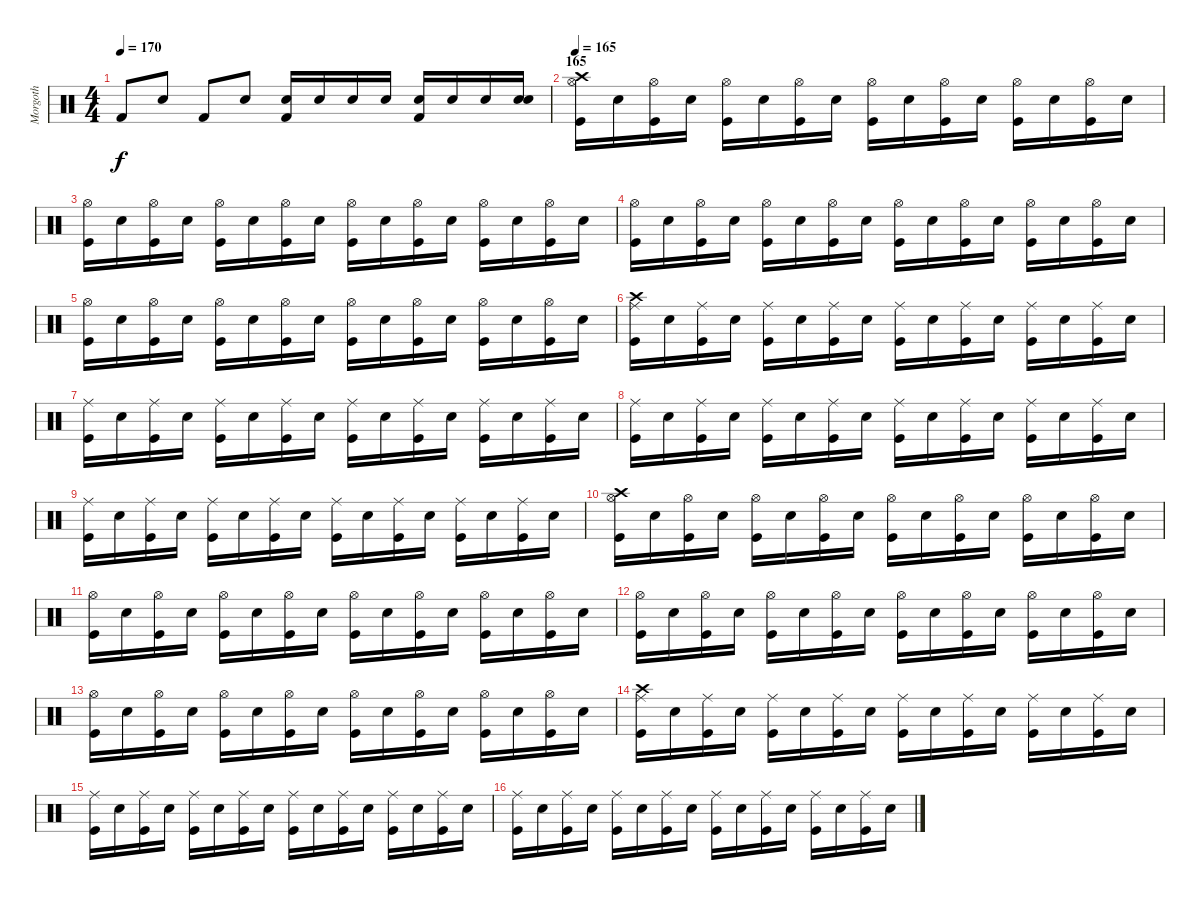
\track ("Morgoth" "Morgoth") {instrument percussion}
\staff {score}
\articulation defaults
\ts (4 4)
\tempo 170
\clef neutral
\ks c "Kick (hit) 2".8{dy f} "Electric Snare (hit)".8 "Kick (hit) 2".8 "Electric Snare (hit)".8
("Electric Snare (hit)" "Kick (hit) 2").16 "Electric Snare (hit)".16 "Electric Snare (hit)".16 "Electric Snare (hit)".16 ("Electric Snare (hit)" "Kick (hit) 2").16 "Electric Snare (hit)".16 "Electric Snare (hit)".16 ("Electric Snare (hit)" "Electric Snare (hit)").16 |
\section ("" "165")
\tempo 165
("Kick (hit)" "Crash high (hit)" "Hi-Hat (open)").16 "Snare (hit) 2".16 ("Kick (hit)" "Hi-Hat (open)").16 "Snare (hit) 2".16 ("Kick (hit)" "Hi-Hat (open)").16 "Snare (hit) 2".16 ("Kick (hit)" "Hi-Hat (open)").16 "Snare (hit) 2".16 ("Kick (hit)" "Hi-Hat (open)").16 "Snare (hit) 2".16 ("Kick (hit)" "Hi-Hat (open)").16 "Snare (hit) 2".16 ("Kick (hit)" "Hi-Hat (open)").16 "Snare (hit) 2".16 ("Kick (hit)" "Hi-Hat (open)").16 "Snare (hit) 2".16 |
("Kick (hit)" "Hi-Hat (open)").16 "Snare (hit) 2".16 ("Kick (hit)" "Hi-Hat (open)").16 "Snare (hit) 2".16 ("Kick (hit)" "Hi-Hat (open)").16 "Snare (hit) 2".16 ("Kick (hit)" "Hi-Hat (open)").16 "Snare (hit) 2".16 ("Kick (hit)" "Hi-Hat (open)").16 "Snare (hit) 2".16 ("Kick (hit)" "Hi-Hat (open)").16 "Snare (hit) 2".16 ("Kick (hit)" "Hi-Hat (open)").16 "Snare (hit) 2".16 ("Kick (hit)" "Hi-Hat (open)").16 "Snare (hit) 2".16 |
("Kick (hit)" "Hi-Hat (open)").16 "Snare (hit) 2".16 ("Kick (hit)" "Hi-Hat (open)").16 "Snare (hit) 2".16 ("Kick (hit)" "Hi-Hat (open)").16 "Snare (hit) 2".16 ("Kick (hit)" "Hi-Hat (open)").16 "Snare (hit) 2".16 ("Kick (hit)" "Hi-Hat (open)").16 "Snare (hit) 2".16 ("Kick (hit)" "Hi-Hat (open)").16 "Snare (hit) 2".16 ("Kick (hit)" "Hi-Hat (open)").16 "Snare (hit) 2".16 ("Kick (hit)" "Hi-Hat (open)").16 "Snare (hit) 2".16 |
("Kick (hit)" "Hi-Hat (open)").16 "Snare (hit) 2".16 ("Kick (hit)" "Hi-Hat (open)").16 "Snare (hit) 2".16 ("Kick (hit)" "Hi-Hat (open)").16 "Snare (hit) 2".16 ("Kick (hit)" "Hi-Hat (open)").16 "Snare (hit) 2".16 ("Kick (hit)" "Hi-Hat (open)").16 "Snare (hit) 2".16 ("Kick (hit)" "Hi-Hat (open)").16 "Snare (hit) 2".16 ("Kick (hit)" "Hi-Hat (open)").16 "Snare (hit) 2".16 ("Kick (hit)" "Hi-Hat (open)").16 "Snare (hit) 2".16 |
("Kick (hit)" "Crash high (hit)" "Ride (middle)").16 "Snare (hit) 2".16 ("Kick (hit)" "Ride (middle)").16 "Snare (hit) 2".16 ("Kick (hit)" "Ride (middle)").16 "Snare (hit) 2".16 ("Kick (hit)" "Ride (middle)").16 "Snare (hit) 2".16 ("Kick (hit)" "Ride (middle)").16 "Snare (hit) 2".16 ("Kick (hit)" "Ride (middle)").16 "Snare (hit) 2".16 ("Kick (hit)" "Ride (middle)").16 "Snare (hit) 2".16 ("Kick (hit)" "Ride (middle)").16 "Snare (hit) 2".16 |
("Kick (hit)" "Ride (middle)").16 "Snare (hit) 2".16 ("Kick (hit)" "Ride (middle)").16 "Snare (hit) 2".16 ("Kick (hit)" "Ride (middle)").16 "Snare (hit) 2".16 ("Kick (hit)" "Ride (middle)").16 "Snare (hit) 2".16 ("Kick (hit)" "Ride (middle)").16 "Snare (hit) 2".16 ("Kick (hit)" "Ride (middle)").16 "Snare (hit) 2".16 ("Kick (hit)" "Ride (middle)").16 "Snare (hit) 2".16 ("Kick (hit)" "Ride (middle)").16 "Snare (hit) 2".16 |
("Kick (hit)" "Ride (middle)").16 "Snare (hit) 2".16 ("Kick (hit)" "Ride (middle)").16 "Snare (hit) 2".16 ("Kick (hit)" "Ride (middle)").16 "Snare (hit) 2".16 ("Kick (hit)" "Ride (middle)").16 "Snare (hit) 2".16 ("Kick (hit)" "Ride (middle)").16 "Snare (hit) 2".16 ("Kick (hit)" "Ride (middle)").16 "Snare (hit) 2".16 ("Kick (hit)" "Ride (middle)").16 "Snare (hit) 2".16 ("Kick (hit)" "Ride (middle)").16 "Snare (hit) 2".16 |
("Kick (hit)" "Ride (middle)").16 "Snare (hit) 2".16 ("Kick (hit)" "Ride (middle)").16 "Snare (hit) 2".16 ("Kick (hit)" "Ride (middle)").16 "Snare (hit) 2".16 ("Kick (hit)" "Ride (middle)").16 "Snare (hit) 2".16 ("Kick (hit)" "Ride (middle)").16 "Snare (hit) 2".16 ("Kick (hit)" "Ride (middle)").16 "Snare (hit) 2".16 ("Kick (hit)" "Ride (middle)").16 "Snare (hit) 2".16 ("Kick (hit)" "Ride (middle)").16 "Snare (hit) 2".16 |
("Kick (hit)" "Crash high (hit)" "Hi-Hat (open)").16 "Snare (hit) 2".16 ("Kick (hit)" "Hi-Hat (open)").16 "Snare (hit) 2".16 ("Kick (hit)" "Hi-Hat (open)").16 "Snare (hit) 2".16 ("Kick (hit)" "Hi-Hat (open)").16 "Snare (hit) 2".16 ("Kick (hit)" "Hi-Hat (open)").16 "Snare (hit) 2".16 ("Kick (hit)" "Hi-Hat (open)").16 "Snare (hit) 2".16 ("Kick (hit)" "Hi-Hat (open)").16 "Snare (hit) 2".16 ("Kick (hit)" "Hi-Hat (open)").16 "Snare (hit) 2".16 |
("Kick (hit)" "Hi-Hat (open)").16 "Snare (hit) 2".16 ("Kick (hit)" "Hi-Hat (open)").16 "Snare (hit) 2".16 ("Kick (hit)" "Hi-Hat (open)").16 "Snare (hit) 2".16 ("Kick (hit)" "Hi-Hat (open)").16 "Snare (hit) 2".16 ("Kick (hit)" "Hi-Hat (open)").16 "Snare (hit) 2".16 ("Kick (hit)" "Hi-Hat (open)").16 "Snare (hit) 2".16 ("Kick (hit)" "Hi-Hat (open)").16 "Snare (hit) 2".16 ("Kick (hit)" "Hi-Hat (open)").16 "Snare (hit) 2".16 |
("Kick (hit)" "Hi-Hat (open)").16 "Snare (hit) 2".16 ("Kick (hit)" "Hi-Hat (open)").16 "Snare (hit) 2".16 ("Kick (hit)" "Hi-Hat (open)").16 "Snare (hit) 2".16 ("Kick (hit)" "Hi-Hat (open)").16 "Snare (hit) 2".16 ("Kick (hit)" "Hi-Hat (open)").16 "Snare (hit) 2".16 ("Kick (hit)" "Hi-Hat (open)").16 "Snare (hit) 2".16 ("Kick (hit)" "Hi-Hat (open)").16 "Snare (hit) 2".16 ("Kick (hit)" "Hi-Hat (open)").16 "Snare (hit) 2".16 |
("Kick (hit)" "Hi-Hat (open)").16 "Snare (hit) 2".16 ("Kick (hit)" "Hi-Hat (open)").16 "Snare (hit) 2".16 ("Kick (hit)" "Hi-Hat (open)").16 "Snare (hit) 2".16 ("Kick (hit)" "Hi-Hat (open)").16 "Snare (hit) 2".16 ("Kick (hit)" "Hi-Hat (open)").16 "Snare (hit) 2".16 ("Kick (hit)" "Hi-Hat (open)").16 "Snare (hit) 2".16 ("Kick (hit)" "Hi-Hat (open)").16 "Snare (hit) 2".16 ("Kick (hit)" "Hi-Hat (open)").16 "Snare (hit) 2".16 |
("Kick (hit)" "Crash high (hit)" "Ride (middle)").16 "Snare (hit) 2".16 ("Kick (hit)" "Ride (middle)").16 "Snare (hit) 2".16 ("Kick (hit)" "Ride (middle)").16 "Snare (hit) 2".16 ("Kick (hit)" "Ride (middle)").16 "Snare (hit) 2".16 ("Kick (hit)" "Ride (middle)").16 "Snare (hit) 2".16 ("Kick (hit)" "Ride (middle)").16 "Snare (hit) 2".16 ("Kick (hit)" "Ride (middle)").16 "Snare (hit) 2".16 ("Kick (hit)" "Ride (middle)").16 "Snare (hit) 2".16 |
("Kick (hit)" "Ride (middle)").16 "Snare (hit) 2".16 ("Kick (hit)" "Ride (middle)").16 "Snare (hit) 2".16 ("Kick (hit)" "Ride (middle)").16 "Snare (hit) 2".16 ("Kick (hit)" "Ride (middle)").16 "Snare (hit) 2".16 ("Kick (hit)" "Ride (middle)").16 "Snare (hit) 2".16 ("Kick (hit)" "Ride (middle)").16 "Snare (hit) 2".16 ("Kick (hit)" "Ride (middle)").16 "Snare (hit) 2".16 ("Kick (hit)" "Ride (middle)").16 "Snare (hit) 2".16 |
("Kick (hit)" "Ride (middle)").16 "Snare (hit) 2".16 ("Kick (hit)" "Ride (middle)").16 "Snare (hit) 2".16 ("Kick (hit)" "Ride (middle)").16 "Snare (hit) 2".16 ("Kick (hit)" "Ride (middle)").16 "Snare (hit) 2".16 ("Kick (hit)" "Ride (middle)").16 "Snare (hit) 2".16 ("Kick (hit)" "Ride (middle)").16 "Snare (hit) 2".16 ("Kick (hit)" "Ride (middle)").16 "Snare (hit) 2".16 ("Kick (hit)" "Ride (middle)").16 "Snare (hit) 2".16
